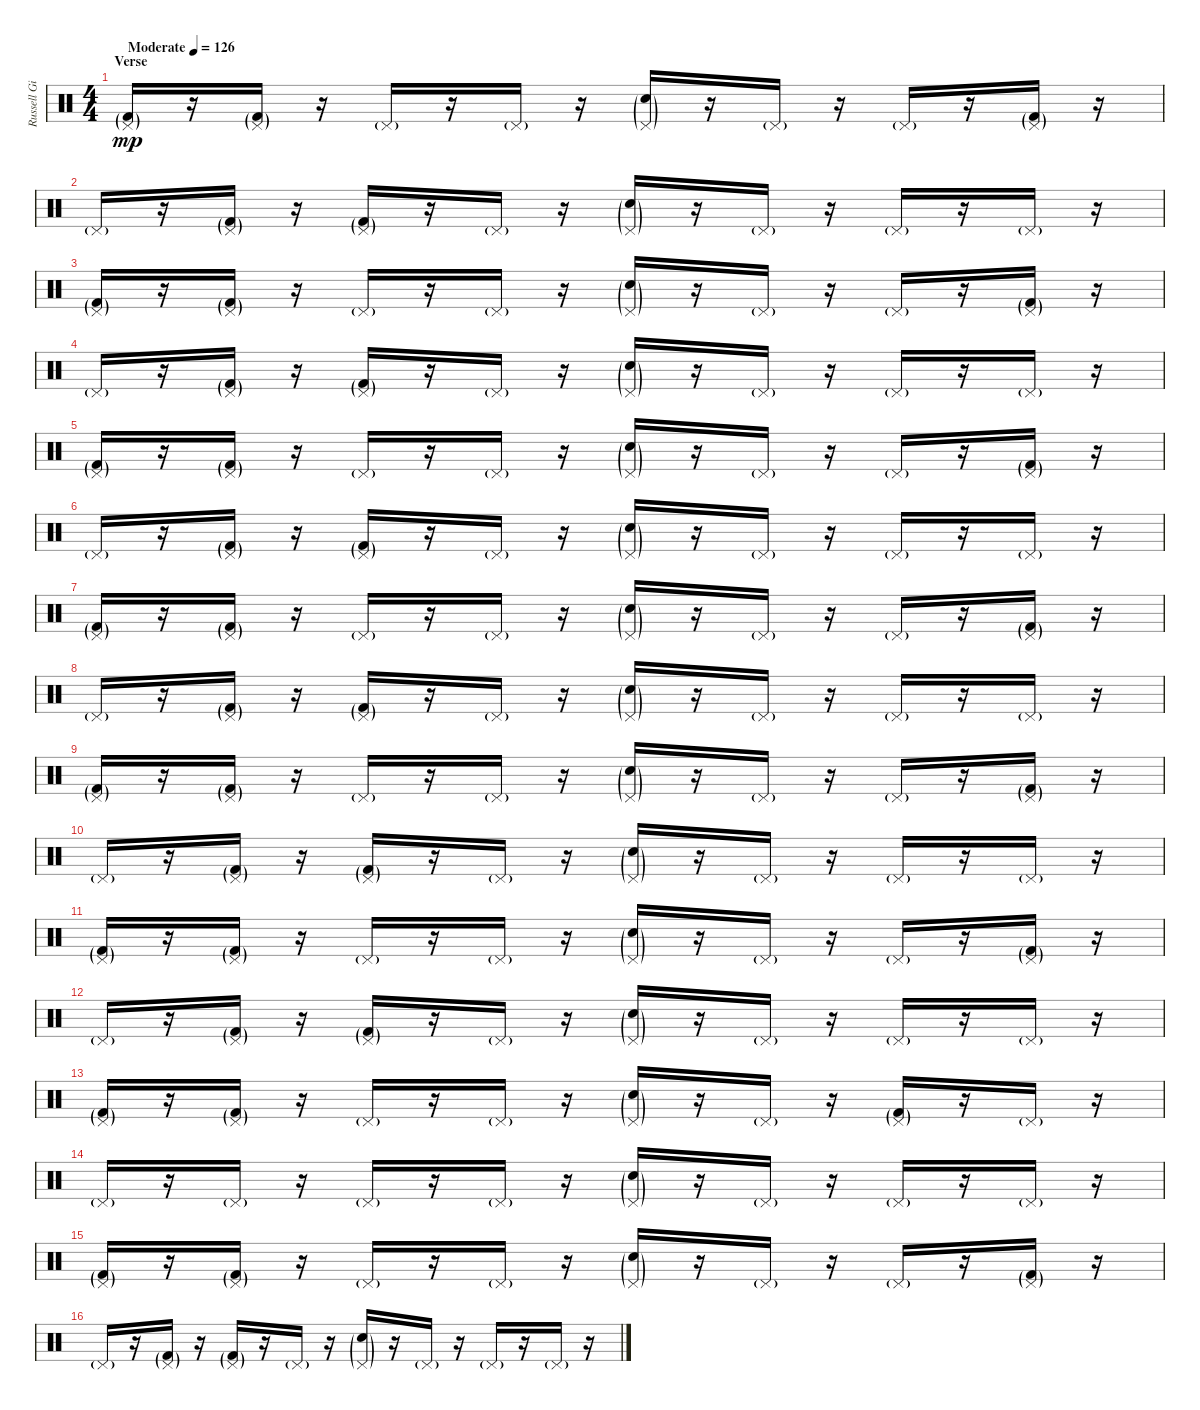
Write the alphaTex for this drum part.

\track ("Russell Gilbrook - Drums" "Russell Gi") {instrument percussion}
\staff {score}
\articulation defaults
\ts (4 4)
\section ("" "Verse")
\tempo (126 "Moderate")
\clef neutral
\ks c
("Pedal Hi-Hat (hit)"{g} "Kick (hit) 2"{g}).16{dy mp} r.16 ("Pedal Hi-Hat (hit)"{g} "Kick (hit) 2"{g}).16 r.16 "Pedal Hi-Hat (hit)"{g}.16 r.16 "Pedal Hi-Hat (hit)"{g}.16 r.16 ("Pedal Hi-Hat (hit)"{g} "Snare (hit) 2"{g}).16 r.16 "Pedal Hi-Hat (hit)"{g}.16 r.16 "Pedal Hi-Hat (hit)"{g}.16 r.16 ("Pedal Hi-Hat (hit)"{g} "Kick (hit) 2"{g}).16 r.16 |
"Pedal Hi-Hat (hit)"{g}.16 r.16 ("Pedal Hi-Hat (hit)"{g} "Kick (hit) 2"{g}).16 r.16 ("Pedal Hi-Hat (hit)"{g} "Kick (hit) 2"{g}).16 r.16 "Pedal Hi-Hat (hit)"{g}.16 r.16 ("Pedal Hi-Hat (hit)"{g} "Snare (hit) 2"{g}).16 r.16 "Pedal Hi-Hat (hit)"{g}.16 r.16 "Pedal Hi-Hat (hit)"{g}.16 r.16 "Pedal Hi-Hat (hit)"{g}.16 r.16 |
("Pedal Hi-Hat (hit)"{g} "Kick (hit) 2"{g}).16 r.16 ("Pedal Hi-Hat (hit)"{g} "Kick (hit) 2"{g}).16 r.16 "Pedal Hi-Hat (hit)"{g}.16 r.16 "Pedal Hi-Hat (hit)"{g}.16 r.16 ("Pedal Hi-Hat (hit)"{g} "Snare (hit) 2"{g}).16 r.16 "Pedal Hi-Hat (hit)"{g}.16 r.16 "Pedal Hi-Hat (hit)"{g}.16 r.16 ("Pedal Hi-Hat (hit)"{g} "Kick (hit) 2"{g}).16 r.16 |
"Pedal Hi-Hat (hit)"{g}.16 r.16 ("Pedal Hi-Hat (hit)"{g} "Kick (hit) 2"{g}).16 r.16 ("Pedal Hi-Hat (hit)"{g} "Kick (hit) 2"{g}).16 r.16 "Pedal Hi-Hat (hit)"{g}.16 r.16 ("Pedal Hi-Hat (hit)"{g} "Snare (hit) 2"{g}).16 r.16 "Pedal Hi-Hat (hit)"{g}.16 r.16 "Pedal Hi-Hat (hit)"{g}.16 r.16 "Pedal Hi-Hat (hit)"{g}.16 r.16 |
("Pedal Hi-Hat (hit)"{g} "Kick (hit) 2"{g}).16 r.16 ("Pedal Hi-Hat (hit)"{g} "Kick (hit) 2"{g}).16 r.16 "Pedal Hi-Hat (hit)"{g}.16 r.16 "Pedal Hi-Hat (hit)"{g}.16 r.16 ("Pedal Hi-Hat (hit)"{g} "Snare (hit) 2"{g}).16 r.16 "Pedal Hi-Hat (hit)"{g}.16 r.16 "Pedal Hi-Hat (hit)"{g}.16 r.16 ("Pedal Hi-Hat (hit)"{g} "Kick (hit) 2"{g}).16 r.16 |
"Pedal Hi-Hat (hit)"{g}.16 r.16 ("Pedal Hi-Hat (hit)"{g} "Kick (hit) 2"{g}).16 r.16 ("Pedal Hi-Hat (hit)"{g} "Kick (hit) 2"{g}).16 r.16 "Pedal Hi-Hat (hit)"{g}.16 r.16 ("Pedal Hi-Hat (hit)"{g} "Snare (hit) 2"{g}).16 r.16 "Pedal Hi-Hat (hit)"{g}.16 r.16 "Pedal Hi-Hat (hit)"{g}.16 r.16 "Pedal Hi-Hat (hit)"{g}.16 r.16 |
("Pedal Hi-Hat (hit)"{g} "Kick (hit) 2"{g}).16 r.16 ("Pedal Hi-Hat (hit)"{g} "Kick (hit) 2"{g}).16 r.16 "Pedal Hi-Hat (hit)"{g}.16 r.16 "Pedal Hi-Hat (hit)"{g}.16 r.16 ("Pedal Hi-Hat (hit)"{g} "Snare (hit) 2"{g}).16 r.16 "Pedal Hi-Hat (hit)"{g}.16 r.16 "Pedal Hi-Hat (hit)"{g}.16 r.16 ("Pedal Hi-Hat (hit)"{g} "Kick (hit) 2"{g}).16 r.16 |
"Pedal Hi-Hat (hit)"{g}.16 r.16 ("Pedal Hi-Hat (hit)"{g} "Kick (hit) 2"{g}).16 r.16 ("Pedal Hi-Hat (hit)"{g} "Kick (hit) 2"{g}).16 r.16 "Pedal Hi-Hat (hit)"{g}.16 r.16 ("Pedal Hi-Hat (hit)"{g} "Snare (hit) 2"{g}).16 r.16 "Pedal Hi-Hat (hit)"{g}.16 r.16 "Pedal Hi-Hat (hit)"{g}.16 r.16 "Pedal Hi-Hat (hit)"{g}.16 r.16 |
("Pedal Hi-Hat (hit)"{g} "Kick (hit) 2"{g}).16 r.16 ("Pedal Hi-Hat (hit)"{g} "Kick (hit) 2"{g}).16 r.16 "Pedal Hi-Hat (hit)"{g}.16 r.16 "Pedal Hi-Hat (hit)"{g}.16 r.16 ("Pedal Hi-Hat (hit)"{g} "Snare (hit) 2"{g}).16 r.16 "Pedal Hi-Hat (hit)"{g}.16 r.16 "Pedal Hi-Hat (hit)"{g}.16 r.16 ("Pedal Hi-Hat (hit)"{g} "Kick (hit) 2"{g}).16 r.16 |
"Pedal Hi-Hat (hit)"{g}.16 r.16 ("Pedal Hi-Hat (hit)"{g} "Kick (hit) 2"{g}).16 r.16 ("Pedal Hi-Hat (hit)"{g} "Kick (hit) 2"{g}).16 r.16 "Pedal Hi-Hat (hit)"{g}.16 r.16 ("Pedal Hi-Hat (hit)"{g} "Snare (hit) 2"{g}).16 r.16 "Pedal Hi-Hat (hit)"{g}.16 r.16 "Pedal Hi-Hat (hit)"{g}.16 r.16 "Pedal Hi-Hat (hit)"{g}.16 r.16 |
("Pedal Hi-Hat (hit)"{g} "Kick (hit) 2"{g}).16 r.16 ("Pedal Hi-Hat (hit)"{g} "Kick (hit) 2"{g}).16 r.16 "Pedal Hi-Hat (hit)"{g}.16 r.16 "Pedal Hi-Hat (hit)"{g}.16 r.16 ("Pedal Hi-Hat (hit)"{g} "Snare (hit) 2"{g}).16 r.16 "Pedal Hi-Hat (hit)"{g}.16 r.16 "Pedal Hi-Hat (hit)"{g}.16 r.16 ("Pedal Hi-Hat (hit)"{g} "Kick (hit) 2"{g}).16 r.16 |
"Pedal Hi-Hat (hit)"{g}.16 r.16 ("Pedal Hi-Hat (hit)"{g} "Kick (hit) 2"{g}).16 r.16 ("Pedal Hi-Hat (hit)"{g} "Kick (hit) 2"{g}).16 r.16 "Pedal Hi-Hat (hit)"{g}.16 r.16 ("Pedal Hi-Hat (hit)"{g} "Snare (hit) 2"{g}).16 r.16 "Pedal Hi-Hat (hit)"{g}.16 r.16 "Pedal Hi-Hat (hit)"{g}.16 r.16 "Pedal Hi-Hat (hit)"{g}.16 r.16 |
("Pedal Hi-Hat (hit)"{g} "Kick (hit) 2"{g}).16 r.16 ("Pedal Hi-Hat (hit)"{g} "Kick (hit) 2"{g}).16 r.16 "Pedal Hi-Hat (hit)"{g}.16 r.16 "Pedal Hi-Hat (hit)"{g}.16 r.16 ("Pedal Hi-Hat (hit)"{g} "Snare (hit) 2"{g}).16 r.16 "Pedal Hi-Hat (hit)"{g}.16 r.16 ("Pedal Hi-Hat (hit)"{g} "Kick (hit) 2"{g}).16 r.16 "Pedal Hi-Hat (hit)"{g}.16 r.16 |
"Pedal Hi-Hat (hit)"{g}.16 r.16 "Pedal Hi-Hat (hit)"{g}.16 r.16 "Pedal Hi-Hat (hit)"{g}.16 r.16 "Pedal Hi-Hat (hit)"{g}.16 r.16 ("Pedal Hi-Hat (hit)"{g} "Snare (hit) 2"{g}).16 r.16 "Pedal Hi-Hat (hit)"{g}.16 r.16 "Pedal Hi-Hat (hit)"{g}.16 r.16 "Pedal Hi-Hat (hit)"{g}.16 r.16 |
("Pedal Hi-Hat (hit)"{g} "Kick (hit) 2"{g}).16 r.16 ("Pedal Hi-Hat (hit)"{g} "Kick (hit) 2"{g}).16 r.16 "Pedal Hi-Hat (hit)"{g}.16 r.16 "Pedal Hi-Hat (hit)"{g}.16 r.16 ("Pedal Hi-Hat (hit)"{g} "Snare (hit) 2"{g}).16 r.16 "Pedal Hi-Hat (hit)"{g}.16 r.16 "Pedal Hi-Hat (hit)"{g}.16 r.16 ("Pedal Hi-Hat (hit)"{g} "Kick (hit) 2"{g}).16 r.16 |
"Pedal Hi-Hat (hit)"{g}.16 r.16 ("Pedal Hi-Hat (hit)"{g} "Kick (hit) 2"{g}).16 r.16 ("Pedal Hi-Hat (hit)"{g} "Kick (hit) 2"{g}).16 r.16 "Pedal Hi-Hat (hit)"{g}.16 r.16 ("Pedal Hi-Hat (hit)"{g} "Snare (hit) 2"{g}).16 r.16 "Pedal Hi-Hat (hit)"{g}.16 r.16 "Pedal Hi-Hat (hit)"{g}.16 r.16 "Pedal Hi-Hat (hit)"{g}.16 r.16
